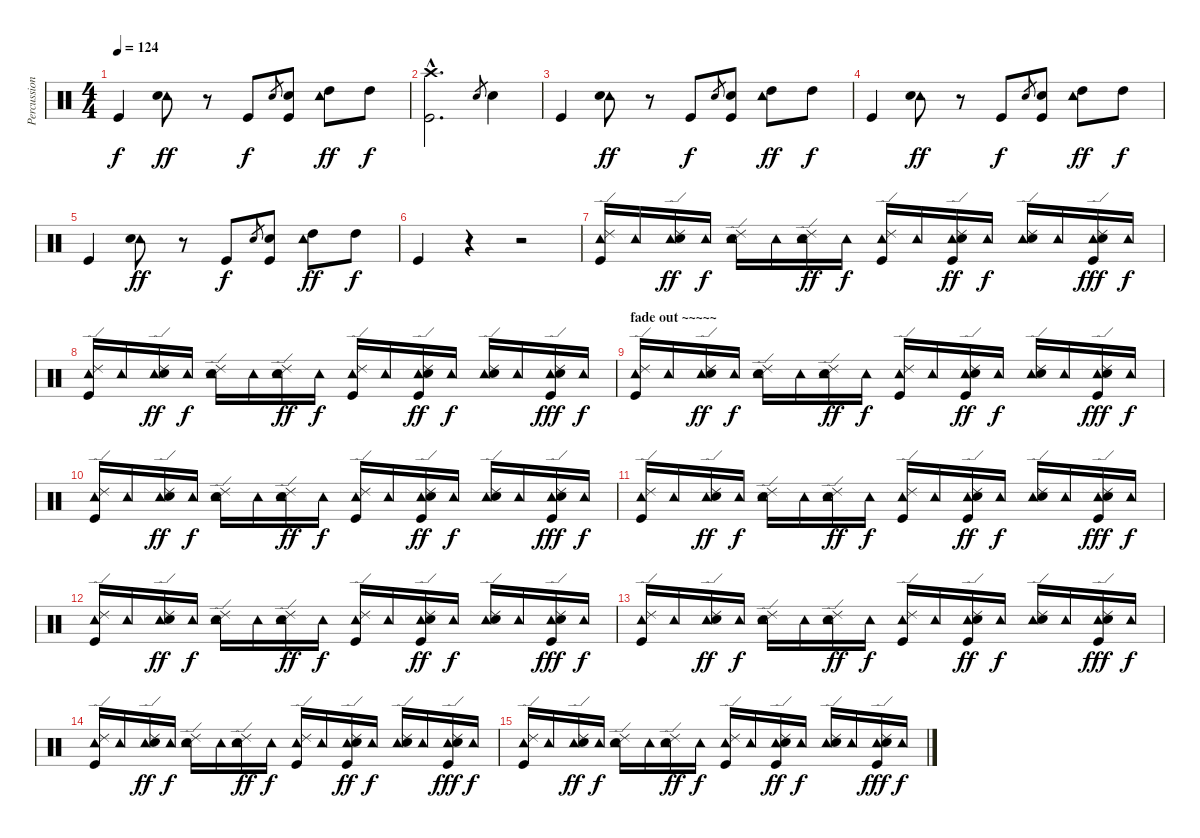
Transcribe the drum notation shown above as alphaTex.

\track ("Percussion" "Percussion") {instrument percussion}
\staff {score}
\articulation defaults
\ts (4 4)
\tempo 124
\clef neutral
\ks c "Kick (hit)".4{dy f}
("Tambourine (hit)" "Snare (hit) 2").8{dy ff} r.8 "Kick (hit)".8{dy f} "Snare (hit) 2".8{gr} ("Snare (hit) 2" "Kick (hit)").8 ("Tambourine (hit)" "High Tom (hit)").8{dy ff} "High Tom (hit)".8{dy f} |
("Crash high (hit)"{hac} "Kick (hit)"{hac}).2{d} "Snare (hit) 2".8{gr} "Snare (hit) 2".4 |
"Kick (hit)".4 ("Tambourine (hit)" "Snare (hit) 2").8{dy ff} r.8 "Kick (hit)".8{dy f} "Snare (hit) 2".8{gr} ("Snare (hit) 2" "Kick (hit)").8 ("Tambourine (hit)" "High Tom (hit)").8{dy ff} "High Tom (hit)".8{dy f} |
"Kick (hit)".4 ("Tambourine (hit)" "Snare (hit) 2").8{dy ff} r.8 "Kick (hit)".8{dy f} "Snare (hit) 2".8{gr} ("Snare (hit) 2" "Kick (hit)").8 ("Tambourine (hit)" "High Tom (hit)").8{dy ff} "High Tom (hit)".8{dy f} |
"Kick (hit)".4 ("Tambourine (hit)" "Snare (hit) 2").8{dy ff} r.8 "Kick (hit)".8{dy f} "Snare (hit) 2".8{gr} ("Snare (hit) 2" "Kick (hit)").8 ("Tambourine (hit)" "High Tom (hit)").8{dy ff} "High Tom (hit)".8{dy f} |
"Kick (hit)".4 r.4 r.2 |
("Ride (edge) 2" "Tambourine (hit)" "Kick (hit)").16 "Tambourine (hit)".16 ("Ride (edge) 2" "Tambourine (hit)" "Hand Clap (hit)").16{dy ff} "Tambourine (hit)".16{dy f} ("Ride (edge) 2" "Tambourine (hit)" "Snare (hit) 2").16 "Tambourine (hit)".16 ("Ride (edge) 2" "Tambourine (hit)" "Hand Clap (hit)").16{dy ff} "Tambourine (hit)".16{dy f} ("Ride (edge) 2" "Tambourine (hit)" "Kick (hit)").16 "Tambourine (hit)".16 ("Ride (edge) 2" "Tambourine (hit)" "Hand Clap (hit)" "Kick (hit)").16{dy ff} "Tambourine (hit)".16{dy f} ("Ride (edge) 2" "Tambourine (hit)" "Snare (hit) 2").16 "Tambourine (hit)".16 ("Ride (edge) 2" "Tambourine (hit)" "Hand Clap (hit)" "Kick (hit)").16{dy fff} "Tambourine (hit)".16{dy f} |
("Ride (edge) 2" "Tambourine (hit)" "Kick (hit)").16 "Tambourine (hit)".16 ("Ride (edge) 2" "Tambourine (hit)" "Hand Clap (hit)").16{dy ff} "Tambourine (hit)".16{dy f} ("Ride (edge) 2" "Tambourine (hit)" "Snare (hit) 2").16 "Tambourine (hit)".16 ("Ride (edge) 2" "Tambourine (hit)" "Hand Clap (hit)").16{dy ff} "Tambourine (hit)".16{dy f} ("Ride (edge) 2" "Tambourine (hit)" "Kick (hit)").16 "Tambourine (hit)".16 ("Ride (edge) 2" "Tambourine (hit)" "Hand Clap (hit)" "Kick (hit)").16{dy ff} "Tambourine (hit)".16{dy f} ("Ride (edge) 2" "Tambourine (hit)" "Snare (hit) 2").16 "Tambourine (hit)".16 ("Ride (edge) 2" "Tambourine (hit)" "Hand Clap (hit)" "Kick (hit)").16{dy fff} "Tambourine (hit)".16{dy f} |
\section ("" "fade out ~~~~~")
("Ride (edge) 2" "Tambourine (hit)" "Kick (hit)").16{volume 13} "Tambourine (hit)".16 ("Ride (edge) 2" "Tambourine (hit)" "Hand Clap (hit)").16{dy ff} "Tambourine (hit)".16{dy f} ("Ride (edge) 2" "Tambourine (hit)" "Snare (hit) 2").16 "Tambourine (hit)".16 ("Ride (edge) 2" "Tambourine (hit)" "Hand Clap (hit)").16{dy ff} "Tambourine (hit)".16{dy f} ("Ride (edge) 2" "Tambourine (hit)" "Kick (hit)").16 "Tambourine (hit)".16 ("Ride (edge) 2" "Tambourine (hit)" "Hand Clap (hit)" "Kick (hit)").16{dy ff} "Tambourine (hit)".16{dy f} ("Ride (edge) 2" "Tambourine (hit)" "Snare (hit) 2").16 "Tambourine (hit)".16 ("Ride (edge) 2" "Tambourine (hit)" "Hand Clap (hit)" "Kick (hit)").16{dy fff} "Tambourine (hit)".16{dy f} |
("Ride (edge) 2" "Tambourine (hit)" "Kick (hit)").16{volume 11} "Tambourine (hit)".16 ("Ride (edge) 2" "Tambourine (hit)" "Hand Clap (hit)").16{dy ff} "Tambourine (hit)".16{dy f} ("Ride (edge) 2" "Tambourine (hit)" "Snare (hit) 2").16 "Tambourine (hit)".16 ("Ride (edge) 2" "Tambourine (hit)" "Hand Clap (hit)").16{dy ff} "Tambourine (hit)".16{dy f} ("Ride (edge) 2" "Tambourine (hit)" "Kick (hit)").16 "Tambourine (hit)".16 ("Ride (edge) 2" "Tambourine (hit)" "Hand Clap (hit)" "Kick (hit)").16{dy ff} "Tambourine (hit)".16{dy f} ("Ride (edge) 2" "Tambourine (hit)" "Snare (hit) 2").16 "Tambourine (hit)".16 ("Ride (edge) 2" "Tambourine (hit)" "Hand Clap (hit)" "Kick (hit)").16{dy fff} "Tambourine (hit)".16{dy f} |
("Ride (edge) 2" "Tambourine (hit)" "Kick (hit)").16{volume 9} "Tambourine (hit)".16 ("Ride (edge) 2" "Tambourine (hit)" "Hand Clap (hit)").16{dy ff} "Tambourine (hit)".16{dy f} ("Ride (edge) 2" "Tambourine (hit)" "Snare (hit) 2").16 "Tambourine (hit)".16 ("Ride (edge) 2" "Tambourine (hit)" "Hand Clap (hit)").16{dy ff} "Tambourine (hit)".16{dy f} ("Ride (edge) 2" "Tambourine (hit)" "Kick (hit)").16 "Tambourine (hit)".16 ("Ride (edge) 2" "Tambourine (hit)" "Hand Clap (hit)" "Kick (hit)").16{dy ff} "Tambourine (hit)".16{dy f} ("Ride (edge) 2" "Tambourine (hit)" "Snare (hit) 2").16 "Tambourine (hit)".16 ("Ride (edge) 2" "Tambourine (hit)" "Hand Clap (hit)" "Kick (hit)").16{dy fff} "Tambourine (hit)".16{dy f} |
("Ride (edge) 2" "Tambourine (hit)" "Kick (hit)").16{volume 7} "Tambourine (hit)".16 ("Ride (edge) 2" "Tambourine (hit)" "Hand Clap (hit)").16{dy ff} "Tambourine (hit)".16{dy f} ("Ride (edge) 2" "Tambourine (hit)" "Snare (hit) 2").16 "Tambourine (hit)".16 ("Ride (edge) 2" "Tambourine (hit)" "Hand Clap (hit)").16{dy ff} "Tambourine (hit)".16{dy f} ("Ride (edge) 2" "Tambourine (hit)" "Kick (hit)").16 "Tambourine (hit)".16 ("Ride (edge) 2" "Tambourine (hit)" "Hand Clap (hit)" "Kick (hit)").16{dy ff} "Tambourine (hit)".16{dy f} ("Ride (edge) 2" "Tambourine (hit)" "Snare (hit) 2").16 "Tambourine (hit)".16 ("Ride (edge) 2" "Tambourine (hit)" "Hand Clap (hit)" "Kick (hit)").16{dy fff} "Tambourine (hit)".16{dy f} |
("Ride (edge) 2" "Tambourine (hit)" "Kick (hit)").16{volume 5} "Tambourine (hit)".16 ("Ride (edge) 2" "Tambourine (hit)" "Hand Clap (hit)").16{dy ff} "Tambourine (hit)".16{dy f} ("Ride (edge) 2" "Tambourine (hit)" "Snare (hit) 2").16 "Tambourine (hit)".16 ("Ride (edge) 2" "Tambourine (hit)" "Hand Clap (hit)").16{dy ff} "Tambourine (hit)".16{dy f} ("Ride (edge) 2" "Tambourine (hit)" "Kick (hit)").16 "Tambourine (hit)".16 ("Ride (edge) 2" "Tambourine (hit)" "Hand Clap (hit)" "Kick (hit)").16{dy ff} "Tambourine (hit)".16{dy f} ("Ride (edge) 2" "Tambourine (hit)" "Snare (hit) 2").16 "Tambourine (hit)".16 ("Ride (edge) 2" "Tambourine (hit)" "Hand Clap (hit)" "Kick (hit)").16{dy fff} "Tambourine (hit)".16{dy f} |
("Ride (edge) 2" "Tambourine (hit)" "Kick (hit)").16{volume 3} "Tambourine (hit)".16 ("Ride (edge) 2" "Tambourine (hit)" "Hand Clap (hit)").16{dy ff} "Tambourine (hit)".16{dy f} ("Ride (edge) 2" "Tambourine (hit)" "Snare (hit) 2").16 "Tambourine (hit)".16 ("Ride (edge) 2" "Tambourine (hit)" "Hand Clap (hit)").16{dy ff} "Tambourine (hit)".16{dy f} ("Ride (edge) 2" "Tambourine (hit)" "Kick (hit)").16 "Tambourine (hit)".16 ("Ride (edge) 2" "Tambourine (hit)" "Hand Clap (hit)" "Kick (hit)").16{dy ff} "Tambourine (hit)".16{dy f} ("Ride (edge) 2" "Tambourine (hit)" "Snare (hit) 2").16 "Tambourine (hit)".16 ("Ride (edge) 2" "Tambourine (hit)" "Hand Clap (hit)" "Kick (hit)").16{dy fff} "Tambourine (hit)".16{dy f} |
("Ride (edge) 2" "Tambourine (hit)" "Kick (hit)").16{volume 1} "Tambourine (hit)".16 ("Ride (edge) 2" "Tambourine (hit)" "Hand Clap (hit)").16{dy ff} "Tambourine (hit)".16{dy f} ("Ride (edge) 2" "Tambourine (hit)" "Snare (hit) 2").16 "Tambourine (hit)".16 ("Ride (edge) 2" "Tambourine (hit)" "Hand Clap (hit)").16{dy ff} "Tambourine (hit)".16{dy f} ("Ride (edge) 2" "Tambourine (hit)" "Kick (hit)").16 "Tambourine (hit)".16 ("Ride (edge) 2" "Tambourine (hit)" "Hand Clap (hit)" "Kick (hit)").16{dy ff} "Tambourine (hit)".16{dy f} ("Ride (edge) 2" "Tambourine (hit)" "Snare (hit) 2").16 "Tambourine (hit)".16 ("Ride (edge) 2" "Tambourine (hit)" "Hand Clap (hit)" "Kick (hit)").16{dy fff} "Tambourine (hit)".16{dy f}
